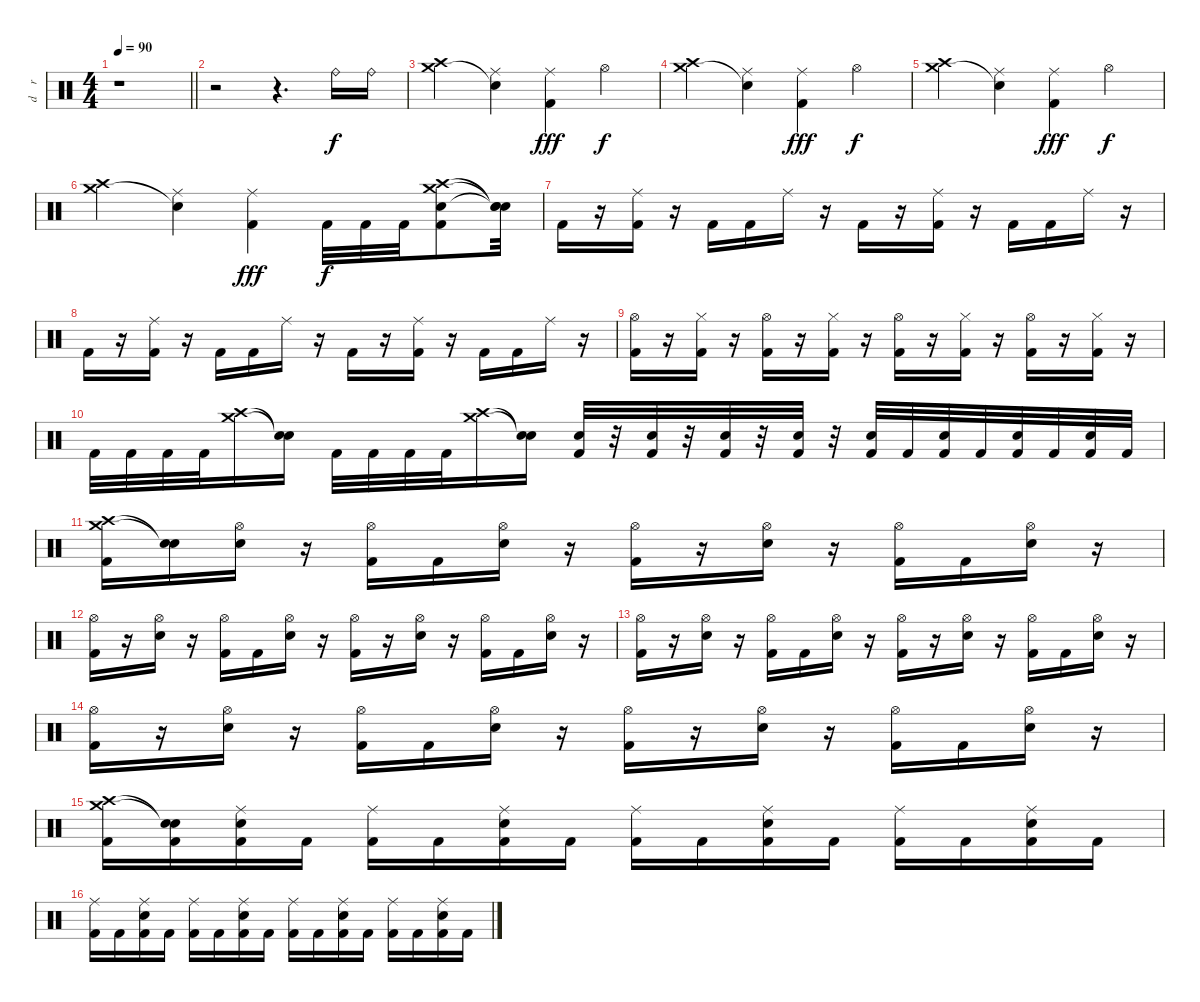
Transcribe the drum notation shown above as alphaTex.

\track ("d    r     u    m    s" "d    r    ") {instrument percussion}
\staff {score}
\articulation defaults
\ts (4 4)
\tempo 90
\clef neutral
\barLineRight lightlight
\ks c
r.1{dy f} |
r.2 r.4{d} "Ride (bell)".16 "Ride (bell)".16 |
("Crash high (hit)" "Crash medium (hit)").4 ("Ride (middle)" "Snare (hit)"{t}).4 ("Ride (middle)" "Kick (hit) 2").4{dy fff} "Hi-Hat (open)".4{dy f} |
("Crash high (hit)" "Crash medium (hit)").4 ("Ride (middle)" "Snare (hit)"{t}).4 ("Ride (middle)" "Kick (hit) 2").4{dy fff} "Hi-Hat (open)".4{dy f} |
("Crash high (hit)" "Crash medium (hit)").4 ("Ride (middle)" "Snare (hit)"{t}).4 ("Ride (middle)" "Kick (hit) 2").4{dy fff} "Hi-Hat (open)".4{dy f} |
("Crash high (hit)" "Crash medium (hit)").4 ("Ride (middle)" "Snare (hit)"{t}).4 ("Ride (middle)" "Kick (hit) 2").4{dy fff} "Kick (hit) 2".32{dy f} "Kick (hit) 2".32 "Kick (hit) 2".32 ("Crash high (hit)" "Crash medium (hit)" "Electric Snare (hit)" "Kick (hit) 2").8 ("Snare (hit)"{t} "Snare (hit)"{t} "Snare (hit)"{t}).32 |
"Kick (hit) 2".16 r.16 ("Ride (middle)" "Kick (hit) 2").16 r.16 "Kick (hit) 2".16 "Kick (hit) 2".16 "Ride (middle)".16 r.16 "Kick (hit) 2".16 r.16 ("Ride (middle)" "Kick (hit) 2").16 r.16 "Kick (hit) 2".16 "Kick (hit) 2".16 "Ride (middle)".16 r.16 |
"Kick (hit) 2".16 r.16 ("Ride (middle)" "Kick (hit) 2").16 r.16 "Kick (hit) 2".16 "Kick (hit) 2".16 "Ride (middle)".16 r.16 "Kick (hit) 2".16 r.16 ("Ride (middle)" "Kick (hit) 2").16 r.16 "Kick (hit) 2".16 "Kick (hit) 2".16 "Ride (middle)".16 r.16 |
("Hi-Hat (open)" "Kick (hit) 2").16 r.16 ("Hi-Hat (closed)" "Kick (hit) 2").16 r.16 ("Hi-Hat (open)" "Kick (hit) 2").16 r.16 ("Hi-Hat (closed)" "Kick (hit) 2").16 r.16 ("Hi-Hat (open)" "Kick (hit) 2").16 r.16 ("Hi-Hat (closed)" "Kick (hit) 2").16 r.16 ("Hi-Hat (open)" "Kick (hit) 2").16 r.16 ("Hi-Hat (closed)" "Kick (hit) 2").16 r.16 |
"Kick (hit) 2".32 "Kick (hit) 2".32 "Kick (hit) 2".32 "Kick (hit) 2".32 ("Crash high (hit)" "Crash medium (hit)").16 ("Snare (hit)"{t} "Snare (hit)"{t}).16 "Kick (hit) 2".32 "Kick (hit) 2".32 "Kick (hit) 2".32 "Kick (hit) 2".32 ("Crash high (hit)" "Crash medium (hit)").16 ("Snare (hit)"{t} "Snare (hit)"{t}).16 ("Electric Snare (hit)" "Kick (hit) 2").32 r.32 ("Electric Snare (hit)" "Kick (hit) 2").32 r.32 ("Electric Snare (hit)" "Kick (hit) 2").32 r.32 ("Electric Snare (hit)" "Kick (hit) 2").32 r.32 ("Electric Snare (hit)" "Kick (hit) 2").32 "Kick (hit) 2".32 ("Electric Snare (hit)" "Kick (hit) 2").32 "Kick (hit) 2".32 ("Electric Snare (hit)" "Kick (hit) 2").32 "Kick (hit) 2".32 ("Electric Snare (hit)" "Kick (hit) 2").32 "Kick (hit) 2".32 |
("Crash high (hit)" "Crash medium (hit)" "Kick (hit) 2").16 ("Snare (hit)"{t} "Snare (hit)"{t}).16 ("Hi-Hat (open)" "Electric Snare (hit)").16 r.16 ("Hi-Hat (open)" "Kick (hit) 2").16 "Kick (hit) 2".16 ("Hi-Hat (open)" "Electric Snare (hit)").16 r.16 ("Hi-Hat (open)" "Kick (hit) 2").16 r.16 ("Hi-Hat (open)" "Electric Snare (hit)").16 r.16 ("Hi-Hat (open)" "Kick (hit) 2").16 "Kick (hit) 2".16 ("Hi-Hat (open)" "Electric Snare (hit)").16 r.16 |
("Hi-Hat (open)" "Kick (hit) 2").16 r.16 ("Hi-Hat (open)" "Electric Snare (hit)").16 r.16 ("Hi-Hat (open)" "Kick (hit) 2").16 "Kick (hit) 2".16 ("Hi-Hat (open)" "Electric Snare (hit)").16 r.16 ("Hi-Hat (open)" "Kick (hit) 2").16 r.16 ("Hi-Hat (open)" "Electric Snare (hit)").16 r.16 ("Hi-Hat (open)" "Kick (hit) 2").16 "Kick (hit) 2".16 ("Hi-Hat (open)" "Electric Snare (hit)").16 r.16 |
("Hi-Hat (open)" "Kick (hit) 2").16 r.16 ("Hi-Hat (open)" "Electric Snare (hit)").16 r.16 ("Hi-Hat (open)" "Kick (hit) 2").16 "Kick (hit) 2".16 ("Hi-Hat (open)" "Electric Snare (hit)").16 r.16 ("Hi-Hat (open)" "Kick (hit) 2").16 r.16 ("Hi-Hat (open)" "Electric Snare (hit)").16 r.16 ("Hi-Hat (open)" "Kick (hit) 2").16 "Kick (hit) 2".16 ("Hi-Hat (open)" "Electric Snare (hit)").16 r.16 |
("Hi-Hat (open)" "Kick (hit) 2").16 r.16 ("Hi-Hat (open)" "Electric Snare (hit)").16 r.16 ("Hi-Hat (open)" "Kick (hit) 2").16 "Kick (hit) 2".16 ("Hi-Hat (open)" "Electric Snare (hit)").16 r.16 ("Hi-Hat (open)" "Kick (hit) 2").16 r.16 ("Hi-Hat (open)" "Electric Snare (hit)").16 r.16 ("Hi-Hat (open)" "Kick (hit) 2").16 "Kick (hit) 2".16 ("Hi-Hat (open)" "Electric Snare (hit)").16 r.16 |
("Crash high (hit)" "Crash medium (hit)" "Kick (hit) 2").16 ("Snare (hit)"{t} "Snare (hit)"{t} "Kick (hit) 2").16 ("Ride (middle)" "Electric Snare (hit)" "Kick (hit) 2").16 "Kick (hit) 2".16 ("Ride (middle)" "Kick (hit) 2").16 "Kick (hit) 2".16 ("Ride (middle)" "Electric Snare (hit)" "Kick (hit) 2").16 "Kick (hit) 2".16 ("Ride (middle)" "Kick (hit) 2").16 "Kick (hit) 2".16 ("Ride (middle)" "Electric Snare (hit)" "Kick (hit) 2").16 "Kick (hit) 2".16 ("Ride (middle)" "Kick (hit) 2").16 "Kick (hit) 2".16 ("Ride (middle)" "Electric Snare (hit)" "Kick (hit) 2").16 "Kick (hit) 2".16 |
("Ride (middle)" "Kick (hit) 2").16 "Kick (hit) 2".16 ("Ride (middle)" "Electric Snare (hit)" "Kick (hit) 2").16 "Kick (hit) 2".16 ("Ride (middle)" "Kick (hit) 2").16 "Kick (hit) 2".16 ("Ride (middle)" "Electric Snare (hit)" "Kick (hit) 2").16 "Kick (hit) 2".16 ("Ride (middle)" "Kick (hit) 2").16 "Kick (hit) 2".16 ("Ride (middle)" "Electric Snare (hit)" "Kick (hit) 2").16 "Kick (hit) 2".16 ("Ride (middle)" "Kick (hit) 2").16 "Kick (hit) 2".16 ("Ride (middle)" "Electric Snare (hit)" "Kick (hit) 2").16 "Kick (hit) 2".16
